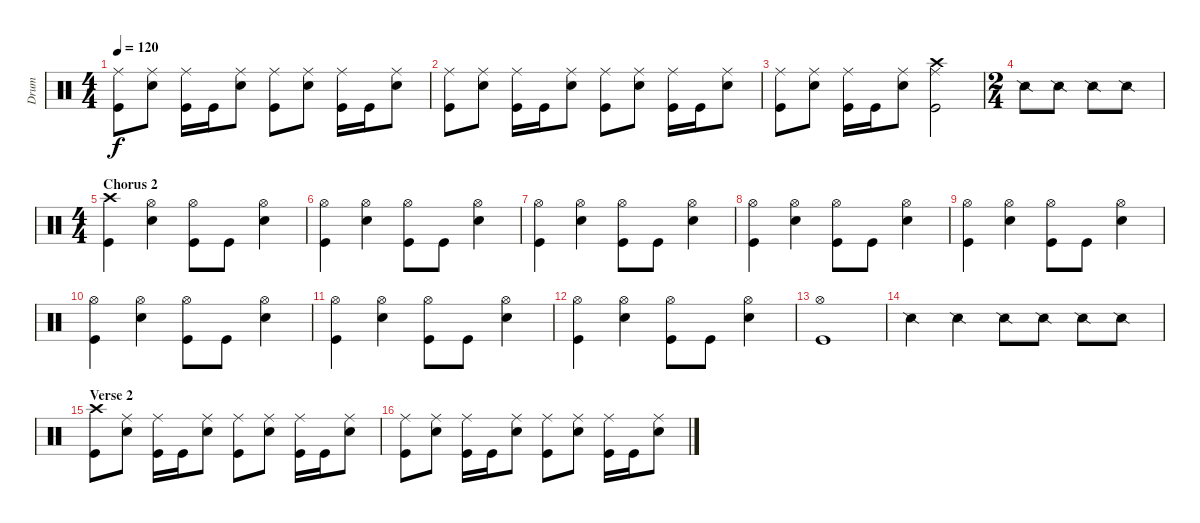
\track ("Drum" "Drum") {instrument percussion}
\staff {score}
\articulation defaults
\ts (4 4)
\tempo 120
\clef neutral
\ks c
("Ride (middle)" "Kick (hit)").8{dy f} ("Ride (middle)" "Electric Snare (hit)").8 ("Ride (middle)" "Kick (hit)").16 "Kick (hit)".16 ("Ride (middle)" "Electric Snare (hit)").8 ("Ride (middle)" "Kick (hit)").8 ("Ride (middle)" "Electric Snare (hit)").8 ("Ride (middle)" "Kick (hit)").16 "Kick (hit)".16 ("Ride (middle)" "Electric Snare (hit)").8 |
("Ride (middle)" "Kick (hit)").8 ("Ride (middle)" "Electric Snare (hit)").8 ("Ride (middle)" "Kick (hit)").16 "Kick (hit)".16 ("Ride (middle)" "Electric Snare (hit)").8 ("Ride (middle)" "Kick (hit)").8 ("Ride (middle)" "Electric Snare (hit)").8 ("Ride (middle)" "Kick (hit)").16 "Kick (hit)".16 ("Ride (middle)" "Electric Snare (hit)").8 |
("Ride (middle)" "Kick (hit)").8 ("Ride (middle)" "Electric Snare (hit)").8 ("Ride (middle)" "Kick (hit)").16 "Kick (hit)".16 ("Ride (middle)" "Electric Snare (hit)").8 ("Ride (middle)" "Crash high (hit)" "Kick (hit)").2 |
\ts (2 4)
"Snare (side stick) 2".8 "Snare (side stick) 2".8 "Snare (side stick) 2".8 "Snare (side stick) 2".8 |
\ts (4 4)
\section ("" "Chorus 2")
("Crash high (hit)" "Kick (hit)").4 ("Hi-Hat (open)" "Electric Snare (hit)").4 ("Hi-Hat (open)" "Kick (hit)").8 "Kick (hit)".8 ("Hi-Hat (open)" "Electric Snare (hit)").4 |
("Hi-Hat (open)" "Kick (hit)").4 ("Hi-Hat (open)" "Electric Snare (hit)").4 ("Hi-Hat (open)" "Kick (hit)").8 "Kick (hit)".8 ("Hi-Hat (open)" "Electric Snare (hit)").4 |
("Hi-Hat (open)" "Kick (hit)").4 ("Hi-Hat (open)" "Electric Snare (hit)").4 ("Hi-Hat (open)" "Kick (hit)").8 "Kick (hit)".8 ("Hi-Hat (open)" "Electric Snare (hit)").4 |
("Hi-Hat (open)" "Kick (hit)").4 ("Hi-Hat (open)" "Electric Snare (hit)").4 ("Hi-Hat (open)" "Kick (hit)").8 "Kick (hit)".8 ("Hi-Hat (open)" "Electric Snare (hit)").4 |
("Hi-Hat (open)" "Kick (hit)").4 ("Hi-Hat (open)" "Electric Snare (hit)").4 ("Hi-Hat (open)" "Kick (hit)").8 "Kick (hit)".8 ("Hi-Hat (open)" "Electric Snare (hit)").4 |
("Hi-Hat (open)" "Kick (hit)").4 ("Hi-Hat (open)" "Electric Snare (hit)").4 ("Hi-Hat (open)" "Kick (hit)").8 "Kick (hit)".8 ("Hi-Hat (open)" "Electric Snare (hit)").4 |
("Hi-Hat (open)" "Kick (hit)").4 ("Hi-Hat (open)" "Electric Snare (hit)").4 ("Hi-Hat (open)" "Kick (hit)").8 "Kick (hit)".8 ("Hi-Hat (open)" "Electric Snare (hit)").4 |
("Hi-Hat (open)" "Kick (hit)").4 ("Hi-Hat (open)" "Electric Snare (hit)").4 ("Hi-Hat (open)" "Kick (hit)").8 "Kick (hit)".8 ("Hi-Hat (open)" "Electric Snare (hit)").4 |
("Hi-Hat (open)" "Kick (hit)").1 |
"Snare (side stick) 2".4 "Snare (side stick) 2".4 "Snare (side stick) 2".8 "Snare (side stick) 2".8 "Snare (side stick) 2".8 "Snare (side stick) 2".8 |
\section ("" "Verse 2")
("Crash high (hit)" "Kick (hit)").8 ("Ride (middle)" "Electric Snare (hit)").8 ("Ride (middle)" "Kick (hit)").16 "Kick (hit)".16 ("Ride (middle)" "Electric Snare (hit)").8 ("Ride (middle)" "Kick (hit)").8 ("Ride (middle)" "Electric Snare (hit)").8 ("Ride (middle)" "Kick (hit)").16 "Kick (hit)".16 ("Ride (middle)" "Electric Snare (hit)").8 |
("Ride (middle)" "Kick (hit)").8 ("Ride (middle)" "Electric Snare (hit)").8 ("Ride (middle)" "Kick (hit)").16 "Kick (hit)".16 ("Ride (middle)" "Electric Snare (hit)").8 ("Ride (middle)" "Kick (hit)").8 ("Ride (middle)" "Electric Snare (hit)").8 ("Ride (middle)" "Kick (hit)").16 "Kick (hit)".16 ("Ride (middle)" "Electric Snare (hit)").8
